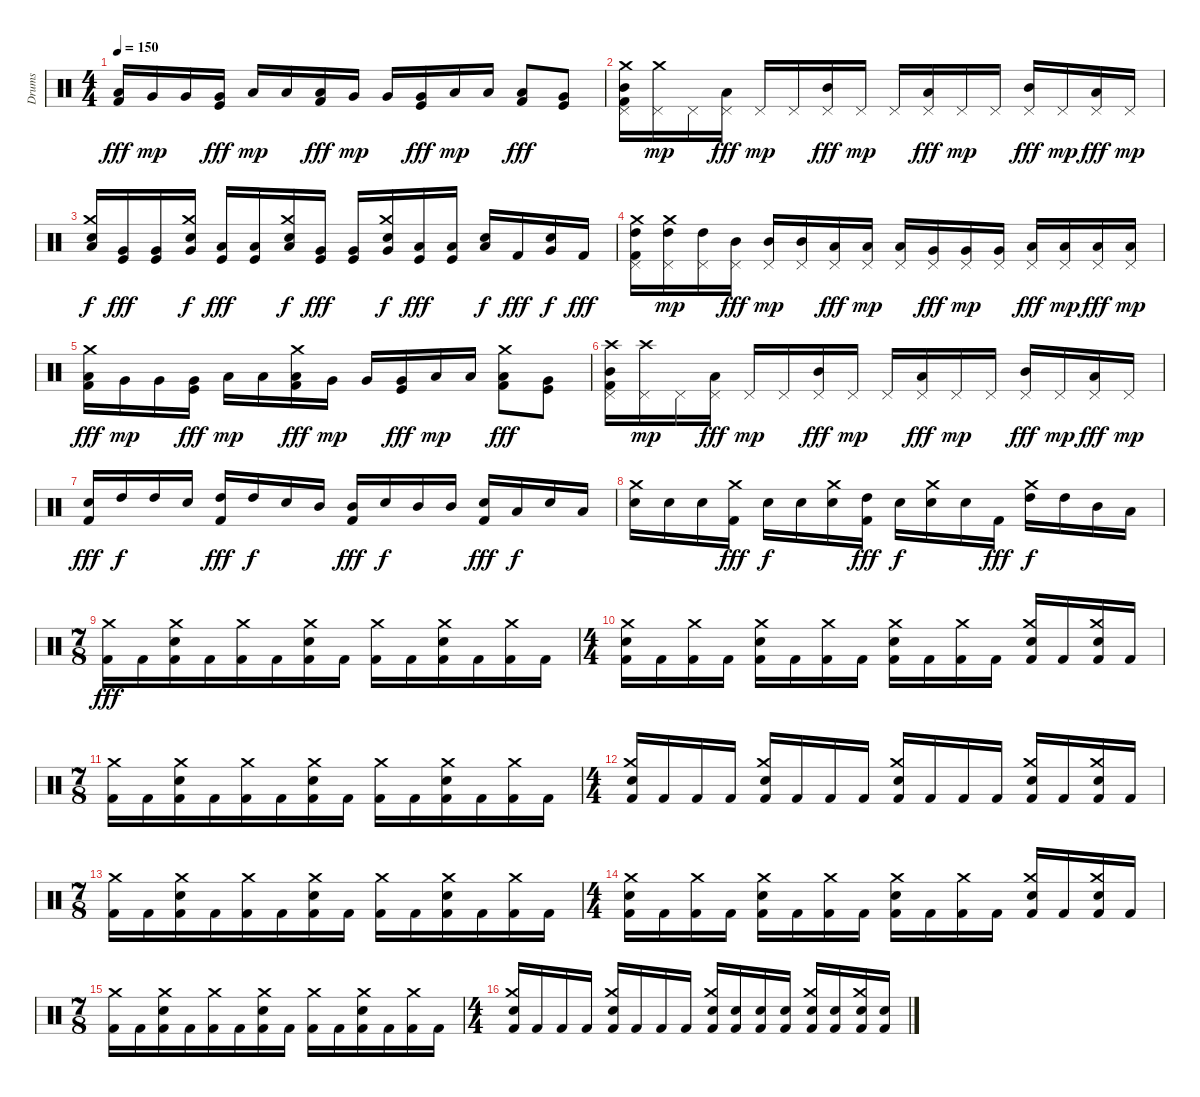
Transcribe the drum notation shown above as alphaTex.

\track ("Drums" "Drums") {instrument percussion}
\staff {score}
\articulation defaults
\ts (4 4)
\tempo 150
\clef neutral
\ks c
("Low Tom (hit)" "Kick (hit) 2").16{dy fff} "Very Low Tom (hit)".16{dy mp} "Very Low Tom (hit)".16 ("Very Low Tom (hit)" "Kick (hit)").16{dy fff} "Low Floor Tom (hit)".16{dy mp} "Low Floor Tom (hit)".16 ("Low Tom (hit)" "Kick (hit) 2").16{dy fff} "Very Low Tom (hit)".16{dy mp} "Very Low Tom (hit)".16 ("Very Low Tom (hit)" "Kick (hit)").16{dy fff} "Low Floor Tom (hit)".16{dy mp} "Low Floor Tom (hit)".16 ("Low Tom (hit)" "Kick (hit) 2").8{dy fff} ("Very Low Tom (hit)" "Kick (hit)").8 |
("Crash medium (hit)" "Pedal Hi-Hat (hit)" "Mid Tom (hit)" "Kick (hit) 2").16 ("Crash medium (hit)" "Pedal Hi-Hat (hit)").16{dy mp} "Pedal Hi-Hat (hit)".16 ("Pedal Hi-Hat (hit)" "Low Tom (hit)").16{dy fff} "Pedal Hi-Hat (hit)".16{dy mp} "Pedal Hi-Hat (hit)".16 ("Pedal Hi-Hat (hit)" "Mid Tom (hit)").16{dy fff} "Pedal Hi-Hat (hit)".16{dy mp} "Pedal Hi-Hat (hit)".16 ("Pedal Hi-Hat (hit)" "Low Tom (hit)").16{dy fff} "Pedal Hi-Hat (hit)".16{dy mp} "Pedal Hi-Hat (hit)".16 ("Pedal Hi-Hat (hit)" "Mid Tom (hit)").16{dy fff} "Pedal Hi-Hat (hit)".16{dy mp} ("Pedal Hi-Hat (hit)" "Low Tom (hit)").16{dy fff} "Pedal Hi-Hat (hit)".16{dy mp} |
("Crash medium (hit)" "Low Tom (hit)" "Electric Snare (hit)").16{dy f} ("Very Low Tom (hit)" "Kick (hit)").16{dy fff} ("Very Low Tom (hit)" "Kick (hit)").16 ("Crash medium (hit)" "Very Low Tom (hit)" "Electric Snare (hit)").16{dy f} ("Low Floor Tom (hit)" "Kick (hit)").16{dy fff} ("Low Floor Tom (hit)" "Kick (hit)").16 ("Crash medium (hit)" "Low Tom (hit)" "Electric Snare (hit)").16{dy f} ("Very Low Tom (hit)" "Kick (hit)").16{dy fff} ("Very Low Tom (hit)" "Kick (hit)").16 ("Crash medium (hit)" "Very Low Tom (hit)" "Electric Snare (hit)").16{dy f} ("Low Floor Tom (hit)" "Kick (hit)").16{dy fff} ("Low Floor Tom (hit)" "Kick (hit)").16 ("Low Tom (hit)" "Electric Snare (hit)").16{dy f} "Kick (hit) 2".16{dy fff} ("Very Low Tom (hit)" "Electric Snare (hit)").16{dy f} "Kick (hit) 2".16{dy fff} |
("Crash medium (hit)" "Pedal Hi-Hat (hit)" "High Tom (hit)" "Kick (hit) 2").16 ("Crash medium (hit)" "Pedal Hi-Hat (hit)" "High Tom (hit)").16{dy mp} ("Pedal Hi-Hat (hit)" "High Tom (hit)").16 ("Pedal Hi-Hat (hit)" "Mid Tom (hit)").16{dy fff} ("Pedal Hi-Hat (hit)" "Mid Tom (hit)").16{dy mp} ("Pedal Hi-Hat (hit)" "Mid Tom (hit)").16 ("Pedal Hi-Hat (hit)" "Low Tom (hit)").16{dy fff} ("Pedal Hi-Hat (hit)" "Low Tom (hit)").16{dy mp} ("Pedal Hi-Hat (hit)" "Low Tom (hit)").16 ("Pedal Hi-Hat (hit)" "Very Low Tom (hit)").16{dy fff} ("Pedal Hi-Hat (hit)" "Very Low Tom (hit)").16{dy mp} ("Pedal Hi-Hat (hit)" "Very Low Tom (hit)").16 ("Pedal Hi-Hat (hit)" "Low Floor Tom (hit)").16{dy fff} ("Pedal Hi-Hat (hit)" "Low Floor Tom (hit)").16{dy mp} ("Pedal Hi-Hat (hit)" "Low Floor Tom (hit)").16{dy fff} ("Pedal Hi-Hat (hit)" "Low Floor Tom (hit)").16{dy mp} |
("Crash medium (hit)" "Low Tom (hit)" "Kick (hit) 2").16{dy fff} "Very Low Tom (hit)".16{dy mp} "Very Low Tom (hit)".16 ("Very Low Tom (hit)" "Kick (hit)").16{dy fff} "Low Floor Tom (hit)".16{dy mp} "Low Floor Tom (hit)".16 ("Crash medium (hit)" "Low Tom (hit)" "Kick (hit) 2").16{dy fff} "Very Low Tom (hit)".16{dy mp} "Very Low Tom (hit)".16 ("Very Low Tom (hit)" "Kick (hit)").16{dy fff} "Low Floor Tom (hit)".16{dy mp} "Low Floor Tom (hit)".16 ("Crash medium (hit)" "Low Tom (hit)" "Kick (hit) 2").8{dy fff} ("Very Low Tom (hit)" "Kick (hit)").8 |
("Crash high (hit)" "Pedal Hi-Hat (hit)" "Mid Tom (hit)" "Kick (hit) 2").16 ("Crash high (hit)" "Pedal Hi-Hat (hit)").16{dy mp} "Pedal Hi-Hat (hit)".16 ("Pedal Hi-Hat (hit)" "Low Tom (hit)").16{dy fff} "Pedal Hi-Hat (hit)".16{dy mp} "Pedal Hi-Hat (hit)".16 ("Pedal Hi-Hat (hit)" "Mid Tom (hit)").16{dy fff} "Pedal Hi-Hat (hit)".16{dy mp} "Pedal Hi-Hat (hit)".16 ("Pedal Hi-Hat (hit)" "Low Tom (hit)").16{dy fff} "Pedal Hi-Hat (hit)".16{dy mp} "Pedal Hi-Hat (hit)".16 ("Pedal Hi-Hat (hit)" "Mid Tom (hit)").16{dy fff} "Pedal Hi-Hat (hit)".16{dy mp} ("Pedal Hi-Hat (hit)" "Low Tom (hit)").16{dy fff} "Pedal Hi-Hat (hit)".16{dy mp} |
("Electric Snare (hit)" "Kick (hit) 2").16{dy fff} "High Tom (hit)".16{dy f} "High Tom (hit)".16 "Electric Snare (hit)".16 ("High Tom (hit)" "Kick (hit) 2").16{dy fff} "High Tom (hit)".16{dy f} "Electric Snare (hit)".16 "Mid Tom (hit)".16 ("Mid Tom (hit)" "Kick (hit) 2").16{dy fff} "Electric Snare (hit)".16{dy f} "Mid Tom (hit)".16 "Mid Tom (hit)".16 ("Electric Snare (hit)" "Kick (hit) 2").16{dy fff} "Low Tom (hit)".16{dy f} "Electric Snare (hit)".16 "Low Tom (hit)".16 |
("Crash medium (hit)" "Electric Snare (hit)").16 "Electric Snare (hit)".16 "Electric Snare (hit)".16 ("Crash medium (hit)" "Kick (hit) 2").16{dy fff} "Electric Snare (hit)".16{dy f} "Electric Snare (hit)".16 ("Crash medium (hit)" "Electric Snare (hit)").16 ("High Tom (hit)" "Kick (hit) 2").16{dy fff} "Electric Snare (hit)".16{dy f} ("Crash medium (hit)" "Electric Snare (hit)").16 "Electric Snare (hit)".16 "Kick (hit) 2".16{dy fff} ("Crash medium (hit)" "High Tom (hit)").16{dy f} "High Tom (hit)".16 "Mid Tom (hit)".16 "Low Tom (hit)".16 |
\ts (7 8)
("Crash medium (hit)" "Kick (hit) 2").16{dy fff} "Kick (hit) 2".16 ("Crash medium (hit)" "Electric Snare (hit)" "Kick (hit) 2").16 "Kick (hit) 2".16 ("Crash medium (hit)" "Kick (hit) 2").16 "Kick (hit) 2".16 ("Crash medium (hit)" "Electric Snare (hit)" "Kick (hit) 2").16 "Kick (hit) 2".16 ("Crash medium (hit)" "Kick (hit) 2").16 "Kick (hit) 2".16 ("Crash medium (hit)" "Electric Snare (hit)" "Kick (hit) 2").16 "Kick (hit) 2".16 ("Crash medium (hit)" "Kick (hit) 2").16 "Kick (hit) 2".16 |
\ts (4 4)
("Crash medium (hit)" "Electric Snare (hit)" "Kick (hit) 2").16 "Kick (hit) 2".16 ("Crash medium (hit)" "Kick (hit) 2").16 "Kick (hit) 2".16 ("Crash medium (hit)" "Electric Snare (hit)" "Kick (hit) 2").16 "Kick (hit) 2".16 ("Crash medium (hit)" "Kick (hit) 2").16 "Kick (hit) 2".16 ("Crash medium (hit)" "Electric Snare (hit)" "Kick (hit) 2").16 "Kick (hit) 2".16 ("Crash medium (hit)" "Kick (hit) 2").16 "Kick (hit) 2".16 ("Crash medium (hit)" "Electric Snare (hit)" "Kick (hit) 2").16 "Kick (hit) 2".16 ("Crash medium (hit)" "Electric Snare (hit)" "Kick (hit) 2").16 "Kick (hit) 2".16 |
\ts (7 8)
("Crash medium (hit)" "Kick (hit) 2").16 "Kick (hit) 2".16 ("Crash medium (hit)" "Electric Snare (hit)" "Kick (hit) 2").16 "Kick (hit) 2".16 ("Crash medium (hit)" "Kick (hit) 2").16 "Kick (hit) 2".16 ("Crash medium (hit)" "Electric Snare (hit)" "Kick (hit) 2").16 "Kick (hit) 2".16 ("Crash medium (hit)" "Kick (hit) 2").16 "Kick (hit) 2".16 ("Crash medium (hit)" "Electric Snare (hit)" "Kick (hit) 2").16 "Kick (hit) 2".16 ("Crash medium (hit)" "Kick (hit) 2").16 "Kick (hit) 2".16 |
\ts (4 4)
("Crash medium (hit)" "Electric Snare (hit)" "Kick (hit) 2").16 "Kick (hit) 2".16 "Kick (hit) 2".16 "Kick (hit) 2".16 ("Crash medium (hit)" "Electric Snare (hit)" "Kick (hit) 2").16 "Kick (hit) 2".16 "Kick (hit) 2".16 "Kick (hit) 2".16 ("Crash medium (hit)" "Electric Snare (hit)" "Kick (hit) 2").16 "Kick (hit) 2".16 "Kick (hit) 2".16 "Kick (hit) 2".16 ("Crash medium (hit)" "Electric Snare (hit)" "Kick (hit) 2").16 "Kick (hit) 2".16 ("Crash medium (hit)" "Electric Snare (hit)" "Kick (hit) 2").16 "Kick (hit) 2".16 |
\ts (7 8)
("Crash medium (hit)" "Kick (hit) 2").16 "Kick (hit) 2".16 ("Crash medium (hit)" "Electric Snare (hit)" "Kick (hit) 2").16 "Kick (hit) 2".16 ("Crash medium (hit)" "Kick (hit) 2").16 "Kick (hit) 2".16 ("Crash medium (hit)" "Electric Snare (hit)" "Kick (hit) 2").16 "Kick (hit) 2".16 ("Crash medium (hit)" "Kick (hit) 2").16 "Kick (hit) 2".16 ("Crash medium (hit)" "Electric Snare (hit)" "Kick (hit) 2").16 "Kick (hit) 2".16 ("Crash medium (hit)" "Kick (hit) 2").16 "Kick (hit) 2".16 |
\ts (4 4)
("Crash medium (hit)" "Electric Snare (hit)" "Kick (hit) 2").16 "Kick (hit) 2".16 ("Crash medium (hit)" "Kick (hit) 2").16 "Kick (hit) 2".16 ("Crash medium (hit)" "Electric Snare (hit)" "Kick (hit) 2").16 "Kick (hit) 2".16 ("Crash medium (hit)" "Kick (hit) 2").16 "Kick (hit) 2".16 ("Crash medium (hit)" "Electric Snare (hit)" "Kick (hit) 2").16 "Kick (hit) 2".16 ("Crash medium (hit)" "Kick (hit) 2").16 "Kick (hit) 2".16 ("Crash medium (hit)" "Electric Snare (hit)" "Kick (hit) 2").16 "Kick (hit) 2".16 ("Crash medium (hit)" "Electric Snare (hit)" "Kick (hit) 2").16 "Kick (hit) 2".16 |
\ts (7 8)
("Crash medium (hit)" "Kick (hit) 2").16 "Kick (hit) 2".16 ("Crash medium (hit)" "Electric Snare (hit)" "Kick (hit) 2").16 "Kick (hit) 2".16 ("Crash medium (hit)" "Kick (hit) 2").16 "Kick (hit) 2".16 ("Crash medium (hit)" "Electric Snare (hit)" "Kick (hit) 2").16 "Kick (hit) 2".16 ("Crash medium (hit)" "Kick (hit) 2").16 "Kick (hit) 2".16 ("Crash medium (hit)" "Electric Snare (hit)" "Kick (hit) 2").16 "Kick (hit) 2".16 ("Crash medium (hit)" "Kick (hit) 2").16 "Kick (hit) 2".16 |
\ts (4 4)
("Crash medium (hit)" "Electric Snare (hit)" "Kick (hit) 2").16 "Kick (hit) 2".16 "Kick (hit) 2".16 "Kick (hit) 2".16 ("Crash medium (hit)" "Electric Snare (hit)" "Kick (hit) 2").16 "Kick (hit) 2".16 "Kick (hit) 2".16 "Kick (hit) 2".16 ("Crash medium (hit)" "Electric Snare (hit)" "Kick (hit) 2").16 ("Electric Snare (hit)" "Kick (hit) 2").16 ("Electric Snare (hit)" "Kick (hit) 2").16 ("Electric Snare (hit)" "Kick (hit) 2").16 ("Crash medium (hit)" "Electric Snare (hit)" "Kick (hit) 2").16 ("Electric Snare (hit)" "Kick (hit) 2").16 ("Crash medium (hit)" "Electric Snare (hit)" "Kick (hit) 2").16 ("Electric Snare (hit)" "Kick (hit) 2").16
